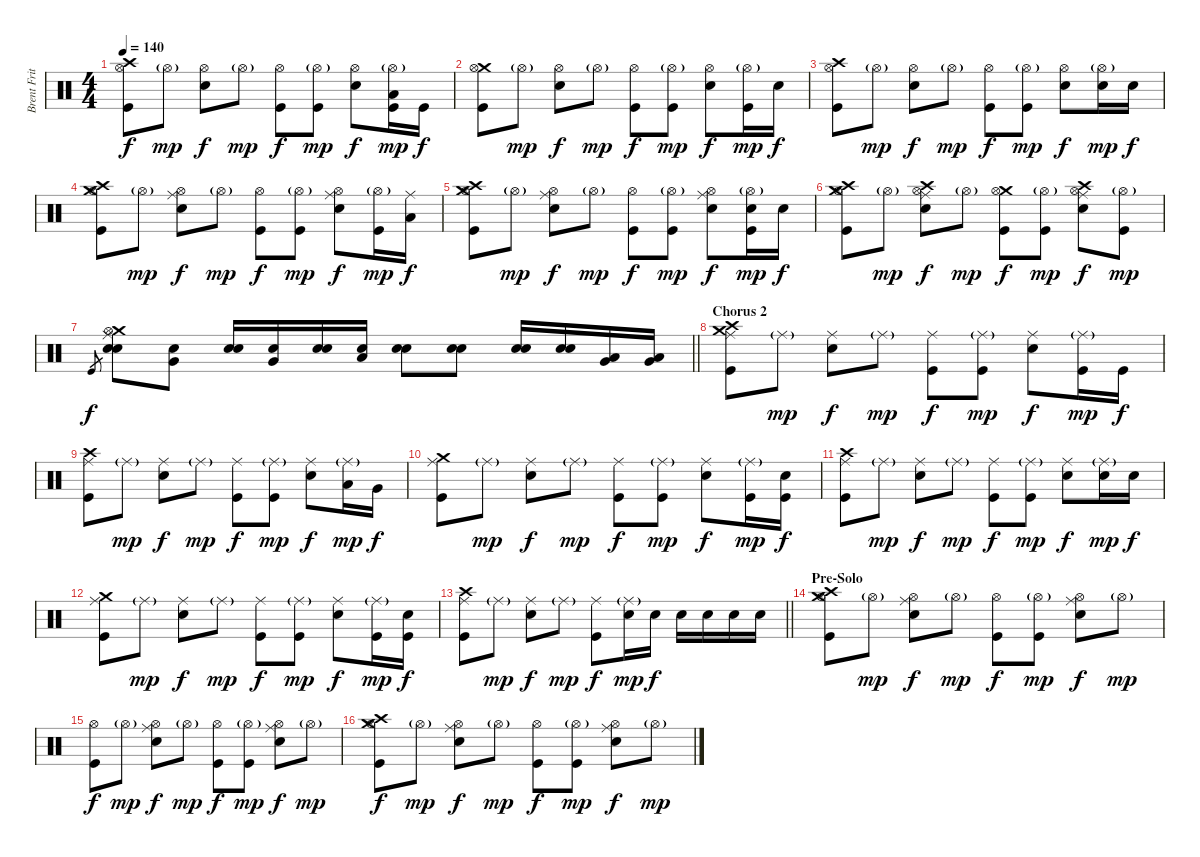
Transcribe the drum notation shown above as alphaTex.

\track ("Brent Fritz" "Brent Frit") {instrument percussion}
\staff {score}
\articulation defaults
\ts (4 4)
\tempo 140
\clef neutral
\ks c
("Crash high (hit)" "Hi-Hat (open)" "Kick (hit)").8{dy f} "Hi-Hat (open)"{g}.8{dy mp} ("Hi-Hat (open)" "Electric Snare (hit)").8{dy f} "Hi-Hat (open)"{g}.8{dy mp} ("Hi-Hat (open)" "Kick (hit)").8{dy f} ("Hi-Hat (open)"{g} "Kick (hit)").8{dy mp} ("Hi-Hat (open)" "Electric Snare (hit)").8{dy f} ("Hi-Hat (open)"{g} "Low Tom (hit)" "Kick (hit)").16{dy mp} "Kick (hit)".16{dy f} |
("Crash medium (hit)" "Hi-Hat (open)" "Kick (hit)").8 "Hi-Hat (open)"{g}.8{dy mp} ("Hi-Hat (open)" "Electric Snare (hit)").8{dy f} "Hi-Hat (open)"{g}.8{dy mp} ("Hi-Hat (open)" "Kick (hit)").8{dy f} ("Hi-Hat (open)"{g} "Kick (hit)").8{dy mp} ("Hi-Hat (open)" "Electric Snare (hit)").8{dy f} ("Hi-Hat (open)"{g} "Kick (hit)").16{dy mp} "Electric Snare (hit)".16{dy f} |
("Crash high (hit)" "Hi-Hat (open)" "Kick (hit)").8 "Hi-Hat (open)"{g}.8{dy mp} ("Hi-Hat (open)" "Electric Snare (hit)").8{dy f} "Hi-Hat (open)"{g}.8{dy mp} ("Hi-Hat (open)" "Kick (hit)").8{dy f} ("Hi-Hat (open)"{g} "Kick (hit)").8{dy mp} ("Hi-Hat (open)" "Electric Snare (hit)").8{dy f} ("Hi-Hat (open)"{g} "Electric Snare (hit)").16{dy mp} "Electric Snare (hit)".16{dy f} |
("Crash medium (hit)" "Crash high (hit)" "Hi-Hat (open)" "Kick (hit)").8 "Hi-Hat (open)"{g}.8{dy mp} ("Hi-Hat (open)" "Ride (middle)" "Electric Snare (hit)").8{dy f} "Hi-Hat (open)"{g}.8{dy mp} ("Hi-Hat (open)" "Kick (hit)").8{dy f} ("Hi-Hat (open)"{g} "Kick (hit)").8{dy mp} ("Hi-Hat (open)" "Ride (middle)" "Electric Snare (hit)").8{dy f} ("Hi-Hat (open)"{g} "Kick (hit)").16{dy mp} ("Ride (middle)" "Low Tom (hit)").16{dy f} |
("Crash medium (hit)" "Crash high (hit)" "Hi-Hat (open)" "Kick (hit)").8 "Hi-Hat (open)"{g}.8{dy mp} ("Hi-Hat (open)" "Ride (middle)" "Electric Snare (hit)").8{dy f} "Hi-Hat (open)"{g}.8{dy mp} ("Hi-Hat (open)" "Kick (hit)").8{dy f} ("Hi-Hat (open)"{g} "Kick (hit)").8{dy mp} ("Hi-Hat (open)" "Ride (middle)" "Electric Snare (hit)").8{dy f} ("Hi-Hat (open)"{g} "Electric Snare (hit)" "Kick (hit)").16{dy mp} "Electric Snare (hit)".16{dy f} |
("Crash medium (hit)" "Crash high (hit)" "Hi-Hat (open)" "Kick (hit)").8 "Hi-Hat (open)"{g}.8{dy mp} ("Crash high (hit)" "Hi-Hat (open)" "Ride (middle)" "Electric Snare (hit)").8{dy f} "Hi-Hat (open)"{g}.8{dy mp} ("Crash medium (hit)" "Hi-Hat (open)" "Kick (hit)").8{dy f} ("Hi-Hat (open)"{g} "Kick (hit)").8{dy mp} ("Crash high (hit)" "Hi-Hat (open)" "Ride (middle)" "Electric Snare (hit)").8{dy f} ("Hi-Hat (open)"{g} "Kick (hit)").8{dy mp} |
\barLineRight lightlight "Kick (hit)".8{gr dy f}
("Crash medium (hit)" "Ride (middle)" "Hi-Hat (open)" "Electric Snare (hit)" "Electric Snare (hit)").8 ("Very Low Tom (hit)" "Electric Snare (hit)").8 ("Electric Snare (hit)" "Electric Snare (hit)").16 ("Very Low Tom (hit)" "Electric Snare (hit)").16 ("Electric Snare (hit)" "Electric Snare (hit)").16 ("Low Floor Tom (hit)" "Electric Snare (hit)").16 ("Electric Snare (hit)" "Electric Snare (hit)").8 ("Electric Snare (hit)" "Electric Snare (hit)").8 ("Electric Snare (hit)" "Electric Snare (hit)").16 ("Electric Snare (hit)" "Electric Snare (hit)").16 ("Low Tom (hit)" "Very Low Tom (hit)").16 ("Very Low Tom (hit)" "Low Floor Tom (hit)").16 |
\section ("" "Chorus 2")
("Crash medium (hit)" "Crash high (hit)" "Ride (middle)" "Kick (hit)").8 "Ride (middle)"{g}.8{dy mp} ("Ride (middle)" "Electric Snare (hit)").8{dy f} "Ride (middle)"{g}.8{dy mp} ("Ride (middle)" "Kick (hit)").8{dy f} ("Ride (middle)"{g} "Kick (hit)").8{dy mp} ("Ride (middle)" "Electric Snare (hit)").8{dy f} ("Ride (middle)"{g} "Kick (hit)").16{dy mp} "Kick (hit)".16{dy f} |
("Crash high (hit)" "Ride (middle)" "Kick (hit)").8 "Ride (middle)"{g}.8{dy mp} ("Ride (middle)" "Electric Snare (hit)").8{dy f} "Ride (middle)"{g}.8{dy mp} ("Ride (middle)" "Kick (hit)").8{dy f} ("Ride (middle)"{g} "Kick (hit)").8{dy mp} ("Ride (middle)" "Electric Snare (hit)").8{dy f} ("Ride (middle)"{g} "Low Tom (hit)").16{dy mp} "Very Low Tom (hit)".16{dy f} |
("Crash medium (hit)" "Ride (middle)" "Kick (hit)").8 "Ride (middle)"{g}.8{dy mp} ("Ride (middle)" "Electric Snare (hit)").8{dy f} "Ride (middle)"{g}.8{dy mp} ("Ride (middle)" "Kick (hit)").8{dy f} ("Ride (middle)"{g} "Kick (hit)").8{dy mp} ("Ride (middle)" "Electric Snare (hit)").8{dy f} ("Ride (middle)"{g} "Kick (hit)").16{dy mp} ("Electric Snare (hit)" "Kick (hit)").16{dy f} |
("Crash high (hit)" "Ride (middle)" "Kick (hit)").8 "Ride (middle)"{g}.8{dy mp} ("Ride (middle)" "Electric Snare (hit)").8{dy f} "Ride (middle)"{g}.8{dy mp} ("Ride (middle)" "Kick (hit)").8{dy f} ("Ride (middle)"{g} "Kick (hit)").8{dy mp} ("Ride (middle)" "Electric Snare (hit)").8{dy f} ("Ride (middle)"{g} "Electric Snare (hit)").16{dy mp} "Electric Snare (hit)".16{dy f} |
("Crash medium (hit)" "Ride (middle)" "Kick (hit)").8 "Ride (middle)"{g}.8{dy mp} ("Ride (middle)" "Electric Snare (hit)").8{dy f} "Ride (middle)"{g}.8{dy mp} ("Ride (middle)" "Kick (hit)").8{dy f} ("Ride (middle)"{g} "Kick (hit)").8{dy mp} ("Ride (middle)" "Electric Snare (hit)").8{dy f} ("Ride (middle)"{g} "Kick (hit)").16{dy mp} ("Electric Snare (hit)" "Kick (hit)").16{dy f} |
\barLineRight lightlight
("Crash high (hit)" "Ride (middle)" "Kick (hit)").8 "Ride (middle)"{g}.8{dy mp} ("Ride (middle)" "Electric Snare (hit)").8{dy f} "Ride (middle)"{g}.8{dy mp} ("Ride (middle)" "Kick (hit)").8{dy f} ("Ride (middle)"{g} "Electric Snare (hit)").16{dy mp} "Electric Snare (hit)".16{dy f} "Electric Snare (hit)".16 "Electric Snare (hit)".16 "Electric Snare (hit)".16 "Electric Snare (hit)".16 |
\section ("" "Pre-Solo")
("Crash medium (hit)" "Crash high (hit)" "Hi-Hat (open)" "Kick (hit)").8 "Hi-Hat (open)"{g}.8{dy mp} ("Hi-Hat (open)" "Ride (middle)" "Electric Snare (hit)").8{dy f} "Hi-Hat (open)"{g}.8{dy mp} ("Hi-Hat (open)" "Kick (hit)").8{dy f} ("Hi-Hat (open)"{g} "Kick (hit)").8{dy mp} ("Hi-Hat (open)" "Ride (middle)" "Electric Snare (hit)").8{dy f} "Hi-Hat (open)"{g}.8{dy mp} |
("Hi-Hat (open)" "Kick (hit)").8{dy f} "Hi-Hat (open)"{g}.8{dy mp} ("Hi-Hat (open)" "Ride (middle)" "Electric Snare (hit)").8{dy f} "Hi-Hat (open)"{g}.8{dy mp} ("Hi-Hat (open)" "Kick (hit)").8{dy f} ("Hi-Hat (open)"{g} "Kick (hit)").8{dy mp} ("Hi-Hat (open)" "Ride (middle)" "Electric Snare (hit)").8{dy f} "Hi-Hat (open)"{g}.8{dy mp} |
("Crash medium (hit)" "Crash high (hit)" "Hi-Hat (open)" "Kick (hit)").8{dy f} "Hi-Hat (open)"{g}.8{dy mp} ("Hi-Hat (open)" "Ride (middle)" "Electric Snare (hit)").8{dy f} "Hi-Hat (open)"{g}.8{dy mp} ("Hi-Hat (open)" "Kick (hit)").8{dy f} ("Hi-Hat (open)"{g} "Kick (hit)").8{dy mp} ("Hi-Hat (open)" "Ride (middle)" "Electric Snare (hit)").8{dy f} "Hi-Hat (open)"{g}.8{dy mp}
